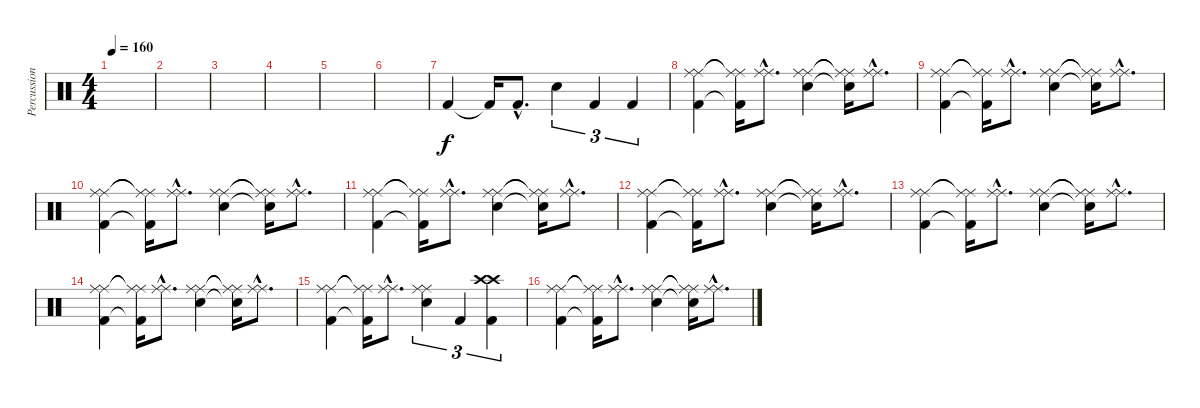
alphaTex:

\track ("Percussioni" "Percussion") {instrument percussion}
\staff {score}
\articulation defaults
\ts (4 4)
\tempo 160
\clef neutral
\ks c
|
|
|
|
|
|
"Kick (hit) 2".4 "Kick (hit) 2"{t}.16 "Kick (hit) 2"{hac}.8{d} "Electric Snare (hit)".4{tu (3 2)} "Kick (hit) 2".4{tu (3 2)} "Kick (hit) 2".4{tu (3 2)} |
("Ride (middle)" "Ride (middle)" "Kick (hit) 2").4 ("Ride (middle)"{t} "Ride (middle)"{t} "Kick (hit) 2"{t}).16 ("Ride (middle)"{hac} "Ride (middle)"{hac}).8{d} ("Ride (middle)" "Ride (middle)" "Electric Snare (hit)").4 ("Ride (middle)"{t} "Ride (middle)"{t} "Electric Snare (hit)"{t}).16 ("Ride (middle)"{hac} "Ride (middle)"{hac}).8{d} |
("Ride (middle)" "Ride (middle)" "Kick (hit) 2").4 ("Ride (middle)"{t} "Ride (middle)"{t} "Kick (hit) 2"{t}).16 ("Ride (middle)"{hac} "Ride (middle)"{hac}).8{d} ("Ride (middle)" "Ride (middle)" "Electric Snare (hit)").4 ("Ride (middle)"{t} "Ride (middle)"{t} "Electric Snare (hit)"{t}).16 ("Ride (middle)"{hac} "Ride (middle)"{hac}).8{d} |
("Ride (middle)" "Ride (middle)" "Kick (hit) 2").4 ("Ride (middle)"{t} "Ride (middle)"{t} "Kick (hit) 2"{t}).16 ("Ride (middle)"{hac} "Ride (middle)"{hac}).8{d} ("Ride (middle)" "Ride (middle)" "Electric Snare (hit)").4 ("Ride (middle)"{t} "Ride (middle)"{t} "Electric Snare (hit)"{t}).16 ("Ride (middle)"{hac} "Ride (middle)"{hac}).8{d} |
("Ride (middle)" "Ride (middle)" "Kick (hit) 2").4 ("Ride (middle)"{t} "Ride (middle)"{t} "Kick (hit) 2"{t}).16 ("Ride (middle)"{hac} "Ride (middle)"{hac}).8{d} ("Ride (middle)" "Ride (middle)" "Electric Snare (hit)").4 ("Ride (middle)"{t} "Ride (middle)"{t} "Electric Snare (hit)"{t}).16 ("Ride (middle)"{hac} "Ride (middle)"{hac}).8{d} |
("Ride (middle)" "Ride (middle)" "Kick (hit) 2").4 ("Ride (middle)"{t} "Ride (middle)"{t} "Kick (hit) 2"{t}).16 ("Ride (middle)"{hac} "Ride (middle)"{hac}).8{d} ("Ride (middle)" "Ride (middle)" "Electric Snare (hit)").4 ("Ride (middle)"{t} "Ride (middle)"{t} "Electric Snare (hit)"{t}).16 ("Ride (middle)"{hac} "Ride (middle)"{hac}).8{d} |
("Ride (middle)" "Ride (middle)" "Kick (hit) 2").4 ("Ride (middle)"{t} "Ride (middle)"{t} "Kick (hit) 2"{t}).16 ("Ride (middle)"{hac} "Ride (middle)"{hac}).8{d} ("Ride (middle)" "Ride (middle)" "Electric Snare (hit)").4 ("Ride (middle)"{t} "Ride (middle)"{t} "Electric Snare (hit)"{t}).16 ("Ride (middle)"{hac} "Ride (middle)"{hac}).8{d} |
("Ride (middle)" "Ride (middle)" "Kick (hit) 2").4 ("Ride (middle)"{t} "Ride (middle)"{t} "Kick (hit) 2"{t}).16 ("Ride (middle)"{hac} "Ride (middle)"{hac}).8{d} ("Ride (middle)" "Ride (middle)" "Electric Snare (hit)").4 ("Ride (middle)"{t} "Ride (middle)"{t} "Electric Snare (hit)"{t}).16 ("Ride (middle)"{hac} "Ride (middle)"{hac}).8{d} |
("Ride (middle)" "Ride (middle)" "Kick (hit) 2").4 ("Ride (middle)"{t} "Ride (middle)"{t} "Kick (hit) 2"{t}).16 ("Ride (middle)"{hac} "Ride (middle)"{hac}).8{d} ("Ride (middle)" "Ride (middle)" "Electric Snare (hit)").4{tu (3 2)} "Kick (hit) 2".4{tu (3 2)} ("Crash high (hit)" "Crash high (hit)" "Kick (hit) 2").4{tu (3 2)} |
("Ride (middle)" "Ride (middle)" "Kick (hit) 2").4 ("Ride (middle)"{t} "Ride (middle)"{t} "Kick (hit) 2"{t}).16 ("Ride (middle)"{hac} "Ride (middle)"{hac}).8{d} ("Ride (middle)" "Ride (middle)" "Electric Snare (hit)").4 ("Ride (middle)"{t} "Ride (middle)"{t} "Electric Snare (hit)"{t}).16 ("Ride (middle)"{hac} "Ride (middle)"{hac}).8{d}
